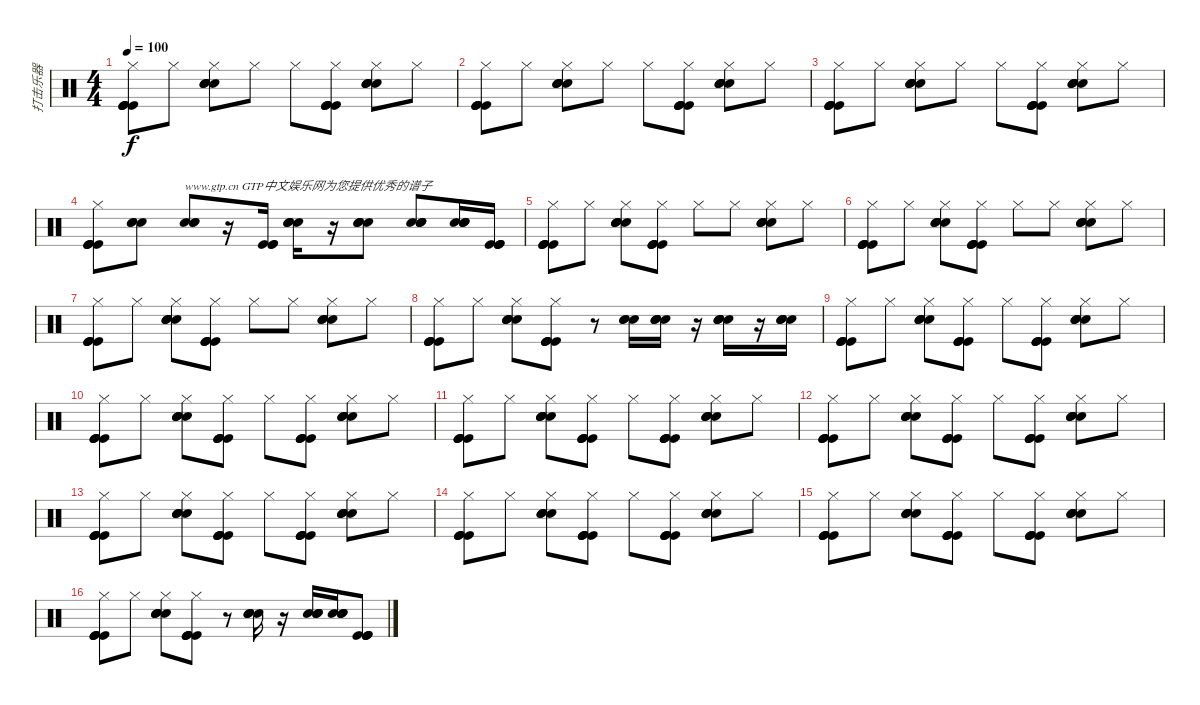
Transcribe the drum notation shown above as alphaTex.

\track ("打击乐器" "打击乐器") {instrument percussion}
\staff {score}
\articulation defaults
\ts (4 4)
\tempo 100
\clef neutral
\ks c
("Hi-Hat (closed)" "Kick (hit)" "Kick (hit)" "Kick (hit)" "Kick (hit)").8{dy f} "Hi-Hat (closed)".8 ("Hi-Hat (closed)" "Snare (hit) 2" "Snare (hit) 2" "Snare (hit) 2" "Snare (hit) 2").8 "Hi-Hat (closed)".8 "Hi-Hat (closed)".8 ("Hi-Hat (closed)" "Kick (hit)" "Kick (hit)" "Kick (hit)" "Kick (hit)").8 ("Hi-Hat (closed)" "Snare (hit) 2" "Snare (hit) 2" "Snare (hit) 2" "Snare (hit) 2").8 "Hi-Hat (closed)".8 |
("Hi-Hat (closed)" "Kick (hit)" "Kick (hit)" "Kick (hit)" "Kick (hit)").8 "Hi-Hat (closed)".8 ("Hi-Hat (closed)" "Snare (hit) 2" "Snare (hit) 2" "Snare (hit) 2" "Snare (hit) 2").8 "Hi-Hat (closed)".8 "Hi-Hat (closed)".8 ("Hi-Hat (closed)" "Kick (hit)" "Kick (hit)" "Kick (hit)" "Kick (hit)").8 ("Hi-Hat (closed)" "Snare (hit) 2" "Snare (hit) 2" "Snare (hit) 2" "Snare (hit) 2").8 "Hi-Hat (closed)".8 |
("Hi-Hat (closed)" "Kick (hit)" "Kick (hit)" "Kick (hit)" "Kick (hit)").8 "Hi-Hat (closed)".8 ("Hi-Hat (closed)" "Snare (hit) 2" "Snare (hit) 2" "Snare (hit) 2" "Snare (hit) 2").8 "Hi-Hat (closed)".8 "Hi-Hat (closed)".8 ("Hi-Hat (closed)" "Kick (hit)" "Kick (hit)" "Kick (hit)" "Kick (hit)").8 ("Hi-Hat (closed)" "Snare (hit) 2" "Snare (hit) 2" "Snare (hit) 2" "Snare (hit) 2").8 "Hi-Hat (closed)".8 |
("Hi-Hat (closed)" "Kick (hit)" "Kick (hit)" "Kick (hit)" "Kick (hit)").8 ("Snare (hit) 2" "Snare (hit) 2" "Snare (hit) 2").8 ("Snare (hit) 2" "Snare (hit) 2" "Snare (hit) 2").8{txt "www.gtp.cn GTP中文娱乐网为您提供优秀的谱子"} r.16 ("Kick (hit)" "Kick (hit)" "Kick (hit)").16 ("Snare (hit) 2" "Snare (hit) 2" "Snare (hit) 2" "Snare (hit) 2").16 r.16 ("Snare (hit) 2" "Snare (hit) 2" "Snare (hit) 2" "Snare (hit) 2").8 ("Snare (hit) 2" "Snare (hit) 2" "Snare (hit) 2" "Snare (hit) 2").8 ("Snare (hit) 2" "Snare (hit) 2" "Snare (hit) 2" "Snare (hit) 2").16 ("Kick (hit)" "Kick (hit)" "Kick (hit)" "Kick (hit)").16 |
("Hi-Hat (closed)" "Kick (hit)" "Kick (hit)" "Kick (hit)" "Kick (hit)").8 "Hi-Hat (closed)".8 ("Hi-Hat (closed)" "Snare (hit) 2" "Snare (hit) 2" "Snare (hit) 2" "Snare (hit) 2").8 ("Hi-Hat (closed)" "Kick (hit)" "Kick (hit)" "Kick (hit)" "Kick (hit)").8 "Hi-Hat (closed)".8 "Hi-Hat (closed)".8 ("Hi-Hat (closed)" "Snare (hit) 2" "Snare (hit) 2" "Snare (hit) 2" "Snare (hit) 2").8 "Hi-Hat (closed)".8 |
("Hi-Hat (closed)" "Kick (hit)" "Kick (hit)" "Kick (hit)" "Kick (hit)").8 "Hi-Hat (closed)".8 ("Hi-Hat (closed)" "Snare (hit) 2" "Snare (hit) 2" "Snare (hit) 2" "Snare (hit) 2").8 ("Hi-Hat (closed)" "Kick (hit)" "Kick (hit)" "Kick (hit)" "Kick (hit)").8 "Hi-Hat (closed)".8 "Hi-Hat (closed)".8 ("Hi-Hat (closed)" "Snare (hit) 2" "Snare (hit) 2" "Snare (hit) 2" "Snare (hit) 2").8 "Hi-Hat (closed)".8 |
("Hi-Hat (closed)" "Kick (hit)" "Kick (hit)" "Kick (hit)" "Kick (hit)").8 "Hi-Hat (closed)".8 ("Hi-Hat (closed)" "Snare (hit) 2" "Snare (hit) 2" "Snare (hit) 2" "Snare (hit) 2").8 ("Hi-Hat (closed)" "Kick (hit)" "Kick (hit)" "Kick (hit)" "Kick (hit)").8 "Hi-Hat (closed)".8 "Hi-Hat (closed)".8 ("Hi-Hat (closed)" "Snare (hit) 2" "Snare (hit) 2" "Snare (hit) 2" "Snare (hit) 2").8 "Hi-Hat (closed)".8 |
("Hi-Hat (closed)" "Kick (hit)" "Kick (hit)" "Kick (hit)" "Kick (hit)").8 "Hi-Hat (closed)".8 ("Hi-Hat (closed)" "Snare (hit) 2" "Snare (hit) 2" "Snare (hit) 2" "Snare (hit) 2").8 ("Hi-Hat (closed)" "Kick (hit)" "Kick (hit)" "Kick (hit)" "Kick (hit)").8 r.8 ("Snare (hit) 2" "Snare (hit) 2" "Snare (hit) 2").16 ("Snare (hit) 2" "Snare (hit) 2" "Snare (hit) 2" "Snare (hit) 2").16 r.16 ("Snare (hit) 2" "Snare (hit) 2" "Snare (hit) 2" "Snare (hit) 2").16 r.16 ("Snare (hit) 2" "Snare (hit) 2" "Snare (hit) 2" "Snare (hit) 2").16 |
("Hi-Hat (closed)" "Kick (hit)" "Kick (hit)" "Kick (hit)" "Kick (hit)").8 "Hi-Hat (closed)".8 ("Hi-Hat (closed)" "Snare (hit) 2" "Snare (hit) 2" "Snare (hit) 2" "Snare (hit) 2").8 ("Hi-Hat (closed)" "Kick (hit)" "Kick (hit)" "Kick (hit)" "Kick (hit)").8 "Hi-Hat (closed)".8 ("Hi-Hat (closed)" "Kick (hit)" "Kick (hit)" "Kick (hit)" "Kick (hit)").8 ("Hi-Hat (closed)" "Snare (hit) 2" "Snare (hit) 2" "Snare (hit) 2" "Snare (hit) 2").8 "Hi-Hat (closed)".8 |
("Hi-Hat (closed)" "Kick (hit)" "Kick (hit)" "Kick (hit)" "Kick (hit)").8 "Hi-Hat (closed)".8 ("Hi-Hat (closed)" "Snare (hit) 2" "Snare (hit) 2" "Snare (hit) 2" "Snare (hit) 2").8 ("Hi-Hat (closed)" "Kick (hit)" "Kick (hit)" "Kick (hit)" "Kick (hit)").8 "Hi-Hat (closed)".8 ("Hi-Hat (closed)" "Kick (hit)" "Kick (hit)" "Kick (hit)" "Kick (hit)").8 ("Hi-Hat (closed)" "Snare (hit) 2" "Snare (hit) 2" "Snare (hit) 2" "Snare (hit) 2").8 "Hi-Hat (closed)".8 |
("Hi-Hat (closed)" "Kick (hit)" "Kick (hit)" "Kick (hit)" "Kick (hit)").8 "Hi-Hat (closed)".8 ("Hi-Hat (closed)" "Snare (hit) 2" "Snare (hit) 2" "Snare (hit) 2" "Snare (hit) 2").8 ("Hi-Hat (closed)" "Kick (hit)" "Kick (hit)" "Kick (hit)" "Kick (hit)").8 "Hi-Hat (closed)".8 ("Hi-Hat (closed)" "Kick (hit)" "Kick (hit)" "Kick (hit)" "Kick (hit)").8 ("Hi-Hat (closed)" "Snare (hit) 2" "Snare (hit) 2" "Snare (hit) 2" "Snare (hit) 2").8 "Hi-Hat (closed)".8 |
("Hi-Hat (closed)" "Kick (hit)" "Kick (hit)" "Kick (hit)" "Kick (hit)").8 "Hi-Hat (closed)".8 ("Hi-Hat (closed)" "Snare (hit) 2" "Snare (hit) 2" "Snare (hit) 2" "Snare (hit) 2").8 ("Hi-Hat (closed)" "Kick (hit)" "Kick (hit)" "Kick (hit)" "Kick (hit)").8 "Hi-Hat (closed)".8 ("Hi-Hat (closed)" "Kick (hit)" "Kick (hit)" "Kick (hit)" "Kick (hit)").8 ("Hi-Hat (closed)" "Snare (hit) 2" "Snare (hit) 2" "Snare (hit) 2" "Snare (hit) 2").8 "Hi-Hat (closed)".8 |
("Hi-Hat (closed)" "Kick (hit)" "Kick (hit)" "Kick (hit)" "Kick (hit)").8 "Hi-Hat (closed)".8 ("Hi-Hat (closed)" "Snare (hit) 2" "Snare (hit) 2" "Snare (hit) 2" "Snare (hit) 2").8 ("Hi-Hat (closed)" "Kick (hit)" "Kick (hit)" "Kick (hit)" "Kick (hit)").8 "Hi-Hat (closed)".8 ("Hi-Hat (closed)" "Kick (hit)" "Kick (hit)" "Kick (hit)" "Kick (hit)").8 ("Hi-Hat (closed)" "Snare (hit) 2" "Snare (hit) 2" "Snare (hit) 2" "Snare (hit) 2").8 "Hi-Hat (closed)".8 |
("Hi-Hat (closed)" "Kick (hit)" "Kick (hit)" "Kick (hit)" "Kick (hit)").8 "Hi-Hat (closed)".8 ("Hi-Hat (closed)" "Snare (hit) 2" "Snare (hit) 2" "Snare (hit) 2" "Snare (hit) 2").8 ("Hi-Hat (closed)" "Kick (hit)" "Kick (hit)" "Kick (hit)" "Kick (hit)").8 "Hi-Hat (closed)".8 ("Hi-Hat (closed)" "Kick (hit)" "Kick (hit)" "Kick (hit)" "Kick (hit)").8 ("Hi-Hat (closed)" "Snare (hit) 2" "Snare (hit) 2" "Snare (hit) 2" "Snare (hit) 2").8 "Hi-Hat (closed)".8 |
("Hi-Hat (closed)" "Kick (hit)" "Kick (hit)" "Kick (hit)" "Kick (hit)").8 "Hi-Hat (closed)".8 ("Hi-Hat (closed)" "Snare (hit) 2" "Snare (hit) 2" "Snare (hit) 2" "Snare (hit) 2").8 ("Hi-Hat (closed)" "Kick (hit)" "Kick (hit)" "Kick (hit)" "Kick (hit)").8 "Hi-Hat (closed)".8 ("Hi-Hat (closed)" "Kick (hit)" "Kick (hit)" "Kick (hit)" "Kick (hit)").8 ("Hi-Hat (closed)" "Snare (hit) 2" "Snare (hit) 2" "Snare (hit) 2" "Snare (hit) 2").8 "Hi-Hat (closed)".8 |
("Hi-Hat (closed)" "Kick (hit)" "Kick (hit)" "Kick (hit)" "Kick (hit)").8 "Hi-Hat (closed)".8 ("Hi-Hat (closed)" "Snare (hit) 2" "Snare (hit) 2" "Snare (hit) 2" "Snare (hit) 2").8 ("Hi-Hat (closed)" "Kick (hit)" "Kick (hit)" "Kick (hit)" "Kick (hit)").8 r.8 ("Snare (hit) 2" "Snare (hit) 2" "Snare (hit) 2" "Snare (hit) 2").16 r.16 ("Snare (hit) 2" "Snare (hit) 2" "Snare (hit) 2" "Snare (hit) 2").16 ("Snare (hit) 2" "Snare (hit) 2" "Snare (hit) 2" "Snare (hit) 2").16 ("Kick (hit)" "Kick (hit)" "Kick (hit)" "Kick (hit)").8
